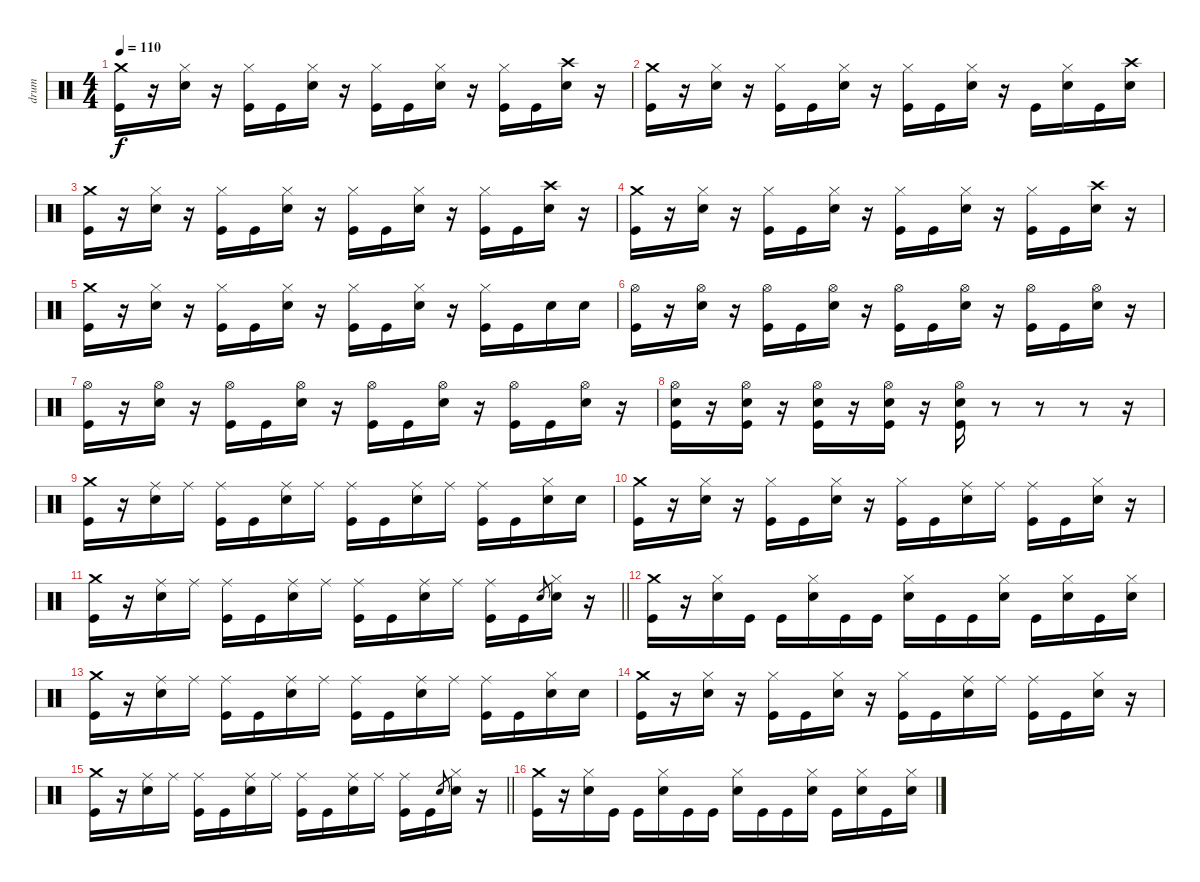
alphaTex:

\track ("drum" "drum") {instrument percussion}
\staff {score}
\articulation defaults
\ts (4 4)
\tempo 110
\clef neutral
\ks c
("Crash medium (hit)" "Kick (hit)").16{dy f} r.16 ("Hi-Hat (closed)" "Electric Snare (hit)").16 r.16 ("Hi-Hat (closed)" "Kick (hit)").16 "Kick (hit)".16 ("Hi-Hat (closed)" "Electric Snare (hit)").16 r.16 ("Hi-Hat (closed)" "Kick (hit)").16 "Kick (hit)".16 ("Hi-Hat (closed)" "Electric Snare (hit)").16 r.16 ("Hi-Hat (closed)" "Kick (hit)").16 "Kick (hit)".16 ("Crash high (hit)" "Electric Snare (hit)").16 r.16 |
("Crash medium (hit)" "Kick (hit)").16 r.16 ("Hi-Hat (closed)" "Electric Snare (hit)").16 r.16 ("Hi-Hat (closed)" "Kick (hit)").16 "Kick (hit)".16 ("Hi-Hat (closed)" "Electric Snare (hit)").16 r.16 ("Hi-Hat (closed)" "Kick (hit)").16 "Kick (hit)".16 ("Hi-Hat (closed)" "Electric Snare (hit)").16 r.16 "Kick (hit)".16 ("Hi-Hat (closed)" "Electric Snare (hit)").16 "Kick (hit)".16 ("Crash high (hit)" "Electric Snare (hit)").16 |
("Crash medium (hit)" "Kick (hit)").16 r.16 ("Hi-Hat (closed)" "Electric Snare (hit)").16 r.16 ("Hi-Hat (closed)" "Kick (hit)").16 "Kick (hit)".16 ("Hi-Hat (closed)" "Electric Snare (hit)").16 r.16 ("Hi-Hat (closed)" "Kick (hit)").16 "Kick (hit)".16 ("Hi-Hat (closed)" "Electric Snare (hit)").16 r.16 ("Hi-Hat (closed)" "Kick (hit)").16 "Kick (hit)".16 ("Crash high (hit)" "Electric Snare (hit)").16 r.16 |
("Crash medium (hit)" "Kick (hit)").16 r.16 ("Hi-Hat (closed)" "Electric Snare (hit)").16 r.16 ("Hi-Hat (closed)" "Kick (hit)").16 "Kick (hit)".16 ("Hi-Hat (closed)" "Electric Snare (hit)").16 r.16 ("Hi-Hat (closed)" "Kick (hit)").16 "Kick (hit)".16 ("Hi-Hat (closed)" "Electric Snare (hit)").16 r.16 ("Hi-Hat (closed)" "Kick (hit)").16 "Kick (hit)".16 ("Crash high (hit)" "Electric Snare (hit)").16 r.16 |
("Crash medium (hit)" "Kick (hit)").16 r.16 ("Hi-Hat (closed)" "Electric Snare (hit)").16 r.16 ("Hi-Hat (closed)" "Kick (hit)").16 "Kick (hit)".16 ("Hi-Hat (closed)" "Electric Snare (hit)").16 r.16 ("Hi-Hat (closed)" "Kick (hit)").16 "Kick (hit)".16 ("Hi-Hat (closed)" "Electric Snare (hit)").16 r.16 ("Hi-Hat (closed)" "Kick (hit)").16 "Kick (hit)".16 "Electric Snare (hit)".16 "Electric Snare (hit)".16 |
("Hi-Hat (open)" "Kick (hit)").16 r.16 ("Hi-Hat (open)" "Electric Snare (hit)").16 r.16 ("Hi-Hat (open)" "Kick (hit)").16 "Kick (hit)".16 ("Hi-Hat (open)" "Electric Snare (hit)").16 r.16 ("Hi-Hat (open)" "Kick (hit)").16 "Kick (hit)".16 ("Hi-Hat (open)" "Electric Snare (hit)").16 r.16 ("Hi-Hat (open)" "Kick (hit)").16 "Kick (hit)".16 ("Hi-Hat (open)" "Electric Snare (hit)").16 r.16 |
("Hi-Hat (open)" "Kick (hit)").16 r.16 ("Hi-Hat (open)" "Electric Snare (hit)").16 r.16 ("Hi-Hat (open)" "Kick (hit)").16 "Kick (hit)".16 ("Hi-Hat (open)" "Electric Snare (hit)").16 r.16 ("Hi-Hat (open)" "Kick (hit)").16 "Kick (hit)".16 ("Hi-Hat (open)" "Electric Snare (hit)").16 r.16 ("Hi-Hat (open)" "Kick (hit)").16 "Kick (hit)".16 ("Hi-Hat (open)" "Electric Snare (hit)").16 r.16 |
("Hi-Hat (open)" "Electric Snare (hit)" "Kick (hit)").16 r.16 ("Hi-Hat (open)" "Electric Snare (hit)" "Kick (hit)").16 r.16 ("Hi-Hat (open)" "Electric Snare (hit)" "Kick (hit)").16 r.16 ("Hi-Hat (open)" "Electric Snare (hit)" "Kick (hit)").16 r.16 ("Hi-Hat (open)" "Electric Snare (hit)" "Kick (hit)").16 r.8 r.8 r.8 r.16 |
("Crash medium (hit)" "Kick (hit)").16 r.16 ("Ride (middle)" "Electric Snare (hit)").16 "Ride (middle)".16 ("Ride (middle)" "Kick (hit)").16 "Kick (hit)".16 ("Ride (middle)" "Electric Snare (hit)").16 "Ride (middle)".16 ("Ride (middle)" "Kick (hit)").16 "Kick (hit)".16 ("Ride (middle)" "Electric Snare (hit)").16 "Ride (middle)".16 ("Ride (middle)" "Kick (hit)").16 "Kick (hit)".16 ("Hi-Hat (closed)" "Electric Snare (hit)").16 "Electric Snare (hit)".16 |
("Crash medium (hit)" "Kick (hit)").16 r.16 ("Hi-Hat (closed)" "Electric Snare (hit)").16 r.16 ("Hi-Hat (closed)" "Kick (hit)").16 "Kick (hit)".16 ("Hi-Hat (closed)" "Electric Snare (hit)").16 r.16 ("Hi-Hat (closed)" "Kick (hit)").16 "Kick (hit)".16 ("Ride (middle)" "Electric Snare (hit)").16 "Ride (middle)".16 ("Ride (middle)" "Kick (hit)").16 "Kick (hit)".16 ("Hi-Hat (closed)" "Electric Snare (hit)").16 r.16 |
\barLineRight lightlight
("Crash medium (hit)" "Kick (hit)").16 r.16 ("Ride (middle)" "Electric Snare (hit)").16 "Ride (middle)".16 ("Ride (middle)" "Kick (hit)").16 "Kick (hit)".16 ("Ride (middle)" "Electric Snare (hit)").16 "Ride (middle)".16 ("Ride (middle)" "Kick (hit)").16 "Kick (hit)".16 ("Ride (middle)" "Electric Snare (hit)").16 "Ride (middle)".16 ("Ride (middle)" "Kick (hit)").16 "Kick (hit)".16 "Electric Snare (hit)".8{gr} ("Hi-Hat (closed)" "Electric Snare (hit)").16 r.16 |
("Crash medium (hit)" "Kick (hit)").16 r.16 ("Hi-Hat (closed)" "Electric Snare (hit)").16 "Kick (hit)".16 "Kick (hit)".16 ("Hi-Hat (closed)" "Electric Snare (hit)").16 "Kick (hit)".16 "Kick (hit)".16 ("Hi-Hat (closed)" "Electric Snare (hit)").16 "Kick (hit)".16 "Kick (hit)".16 ("Hi-Hat (closed)" "Electric Snare (hit)").16 "Kick (hit)".16 ("Hi-Hat (closed)" "Electric Snare (hit)").16 "Kick (hit)".16 ("Hi-Hat (closed)" "Electric Snare (hit)").16 |
("Crash medium (hit)" "Kick (hit)").16 r.16 ("Ride (middle)" "Electric Snare (hit)").16 "Ride (middle)".16 ("Ride (middle)" "Kick (hit)").16 "Kick (hit)".16 ("Ride (middle)" "Electric Snare (hit)").16 "Ride (middle)".16 ("Ride (middle)" "Kick (hit)").16 "Kick (hit)".16 ("Ride (middle)" "Electric Snare (hit)").16 "Ride (middle)".16 ("Ride (middle)" "Kick (hit)").16 "Kick (hit)".16 ("Hi-Hat (closed)" "Electric Snare (hit)").16 "Electric Snare (hit)".16 |
("Crash medium (hit)" "Kick (hit)").16 r.16 ("Hi-Hat (closed)" "Electric Snare (hit)").16 r.16 ("Hi-Hat (closed)" "Kick (hit)").16 "Kick (hit)".16 ("Hi-Hat (closed)" "Electric Snare (hit)").16 r.16 ("Hi-Hat (closed)" "Kick (hit)").16 "Kick (hit)".16 ("Ride (middle)" "Electric Snare (hit)").16 "Ride (middle)".16 ("Ride (middle)" "Kick (hit)").16 "Kick (hit)".16 ("Hi-Hat (closed)" "Electric Snare (hit)").16 r.16 |
\barLineRight lightlight
("Crash medium (hit)" "Kick (hit)").16 r.16 ("Ride (middle)" "Electric Snare (hit)").16 "Ride (middle)".16 ("Ride (middle)" "Kick (hit)").16 "Kick (hit)".16 ("Ride (middle)" "Electric Snare (hit)").16 "Ride (middle)".16 ("Ride (middle)" "Kick (hit)").16 "Kick (hit)".16 ("Ride (middle)" "Electric Snare (hit)").16 "Ride (middle)".16 ("Ride (middle)" "Kick (hit)").16 "Kick (hit)".16 "Electric Snare (hit)".8{gr} ("Hi-Hat (closed)" "Electric Snare (hit)").16 r.16 |
("Crash medium (hit)" "Kick (hit)").16 r.16 ("Hi-Hat (closed)" "Electric Snare (hit)").16 "Kick (hit)".16 "Kick (hit)".16 ("Hi-Hat (closed)" "Electric Snare (hit)").16 "Kick (hit)".16 "Kick (hit)".16 ("Hi-Hat (closed)" "Electric Snare (hit)").16 "Kick (hit)".16 "Kick (hit)".16 ("Hi-Hat (closed)" "Electric Snare (hit)").16 "Kick (hit)".16 ("Hi-Hat (closed)" "Electric Snare (hit)").16 "Kick (hit)".16 ("Hi-Hat (closed)" "Electric Snare (hit)").16
